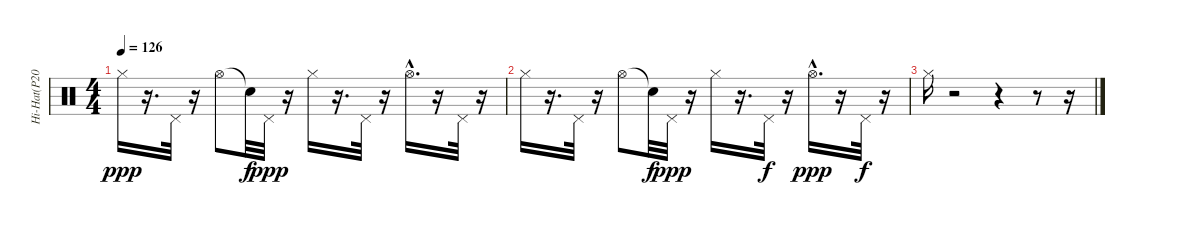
\track ("Hi-Hat(P201)" "Hi-Hat(P20") {instrument percussion}
\staff {score}
\articulation defaults
\ts (4 4)
\tempo 126
\clef neutral
\ks c "Hi-Hat (closed)".16{dy ppp}
r.16{d} "Pedal Hi-Hat (hit)".32 r.16 "Hi-Hat (open)".8 "Snare (hit)"{t}.32{dy f} "Pedal Hi-Hat (hit)".32{dy ppp} r.16 "Hi-Hat (closed)".16 r.16{d} "Pedal Hi-Hat (hit)".32 r.16 "Hi-Hat (open)"{hac}.16{d} r.16 "Pedal Hi-Hat (hit)".32 r.16 |
"Hi-Hat (closed)".16 r.16{d} "Pedal Hi-Hat (hit)".32 r.16 "Hi-Hat (open)".8 "Snare (hit)"{t}.32{dy f} "Pedal Hi-Hat (hit)".32{dy ppp} r.16 "Hi-Hat (closed)".16 r.16{d} "Pedal Hi-Hat (hit)".32{dy f} r.16 "Hi-Hat (open)"{hac}.16{d dy ppp} r.16 "Pedal Hi-Hat (hit)".32{dy f} r.16 |
"Hi-Hat (closed)".16 r.2 r.4 r.8 r.16
